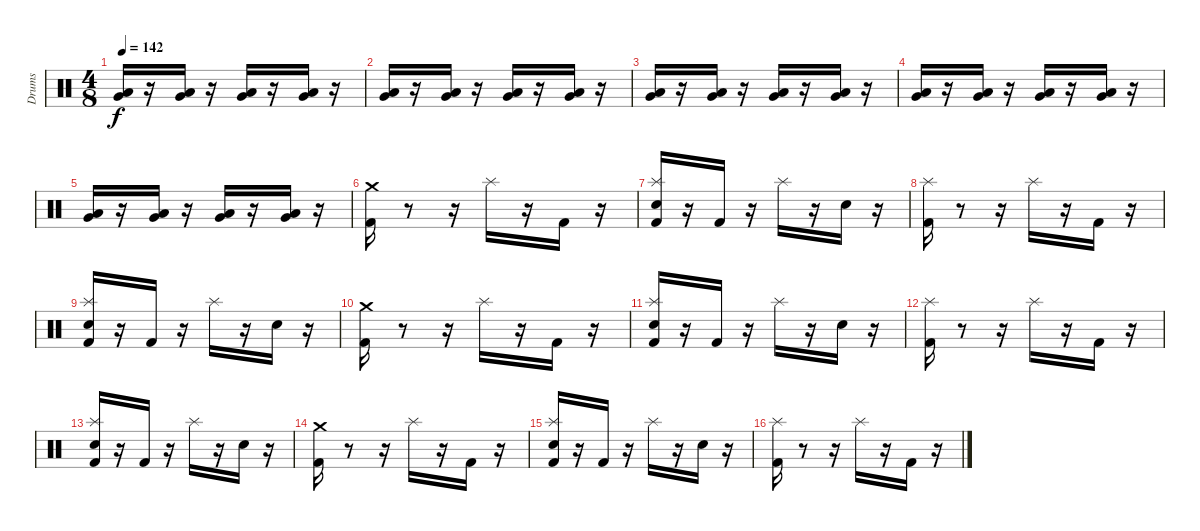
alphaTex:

\track ("Drums" "Drums") {instrument percussion}
\staff {score}
\articulation defaults
\ts (4 8)
\tempo 142
\clef neutral
\ks c
("Low Tom (hit)" "Very Low Tom (hit)").16{dy f} r.16 ("Very Low Tom (hit)" "Low Tom (hit)").16 r.16 ("Low Tom (hit)" "Very Low Tom (hit)").16 r.16 ("Very Low Tom (hit)" "Low Tom (hit)").16 r.16 |
("Very Low Tom (hit)" "Low Tom (hit)").16 r.16 ("Low Tom (hit)" "Very Low Tom (hit)").16 r.16 ("Low Tom (hit)" "Very Low Tom (hit)").16 r.16 ("Low Tom (hit)" "Very Low Tom (hit)").16 r.16 |
("Low Tom (hit)" "Very Low Tom (hit)").16 r.16 ("Very Low Tom (hit)" "Low Tom (hit)").16 r.16 ("Low Tom (hit)" "Very Low Tom (hit)").16 r.16 ("Very Low Tom (hit)" "Low Tom (hit)").16 r.16 |
("Very Low Tom (hit)" "Low Tom (hit)").16 r.16 ("Low Tom (hit)" "Very Low Tom (hit)").16 r.16 ("Low Tom (hit)" "Very Low Tom (hit)").16 r.16 ("Low Tom (hit)" "Very Low Tom (hit)").16 r.16 |
("Low Tom (hit)" "Very Low Tom (hit)").16 r.16 ("Very Low Tom (hit)" "Low Tom (hit)").16 r.16 ("Low Tom (hit)" "Very Low Tom (hit)").16 r.16 ("Very Low Tom (hit)" "Low Tom (hit)").16 r.16 |
("Kick (hit) 2" "Crash medium (hit)").16 r.8 r.16 "Splash (hit)".16 r.16 "Kick (hit) 2".16 r.16 |
("Electric Snare (hit)" "Kick (hit) 2" "Splash (hit)").16 r.16 "Kick (hit) 2".16 r.16 "Splash (hit)".16 r.16 "Electric Snare (hit)".16 r.16 |
("Kick (hit) 2" "Splash (hit)").16 r.8 r.16 "Splash (hit)".16 r.16 "Kick (hit) 2".16 r.16 |
("Electric Snare (hit)" "Kick (hit) 2" "Splash (hit)").16 r.16 "Kick (hit) 2".16 r.16 "Splash (hit)".16 r.16 "Electric Snare (hit)".16 r.16 |
("Kick (hit) 2" "Crash medium (hit)").16 r.8 r.16 "Splash (hit)".16 r.16 "Kick (hit) 2".16 r.16 |
("Electric Snare (hit)" "Kick (hit) 2" "Splash (hit)").16 r.16 "Kick (hit) 2".16 r.16 "Splash (hit)".16 r.16 "Electric Snare (hit)".16 r.16 |
("Kick (hit) 2" "Splash (hit)").16 r.8 r.16 "Splash (hit)".16 r.16 "Kick (hit) 2".16 r.16 |
("Electric Snare (hit)" "Kick (hit) 2" "Splash (hit)").16 r.16 "Kick (hit) 2".16 r.16 "Splash (hit)".16 r.16 "Electric Snare (hit)".16 r.16 |
("Kick (hit) 2" "Crash medium (hit)").16 r.8 r.16 "Splash (hit)".16 r.16 "Kick (hit) 2".16 r.16 |
("Electric Snare (hit)" "Kick (hit) 2" "Splash (hit)").16 r.16 "Kick (hit) 2".16 r.16 "Splash (hit)".16 r.16 "Electric Snare (hit)".16 r.16 |
("Kick (hit) 2" "Splash (hit)").16 r.8 r.16 "Splash (hit)".16 r.16 "Kick (hit) 2".16 r.16
